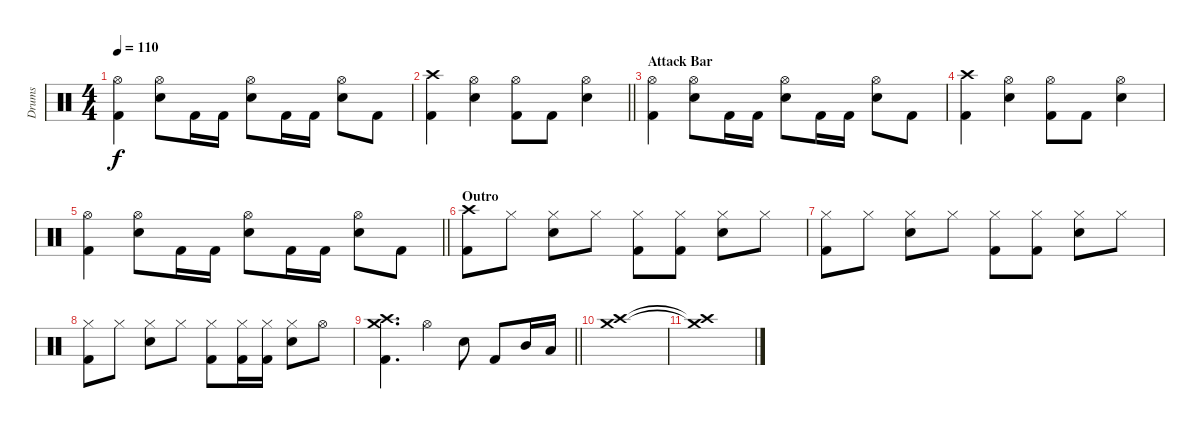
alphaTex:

\track ("Drums" "Drums") {instrument percussion bank 10}
\staff {score}
\articulation defaults
\ts (4 4)
\tempo 110
\clef neutral
\ks c
("Kick (hit) 2" "Hi-Hat (open)").4{dy f} ("Hi-Hat (open)" "Snare (hit) 2").8 "Kick (hit) 2".16 "Kick (hit) 2".16 ("Snare (hit) 2" "Hi-Hat (open)").8 "Kick (hit) 2".16 "Kick (hit) 2".16 ("Snare (hit) 2" "Hi-Hat (open)").8 "Kick (hit) 2".8 |
\barLineRight lightlight
("Kick (hit) 2" "Crash high (hit)").4 ("Hi-Hat (open)" "Snare (hit) 2").4 ("Hi-Hat (open)" "Kick (hit) 2").8 "Kick (hit) 2".8 ("Hi-Hat (open)" "Snare (hit) 2").4 |
\section ("" "Attack Bar")
("Kick (hit) 2" "Hi-Hat (open)").4 ("Hi-Hat (open)" "Snare (hit) 2").8 "Kick (hit) 2".16 "Kick (hit) 2".16 ("Snare (hit) 2" "Hi-Hat (open)").8 "Kick (hit) 2".16 "Kick (hit) 2".16 ("Snare (hit) 2" "Hi-Hat (open)").8 "Kick (hit) 2".8 |
("Kick (hit) 2" "Crash high (hit)").4 ("Hi-Hat (open)" "Snare (hit) 2").4 ("Hi-Hat (open)" "Kick (hit) 2").8 "Kick (hit) 2".8 ("Hi-Hat (open)" "Snare (hit) 2").4 |
\barLineRight lightlight
("Kick (hit) 2" "Hi-Hat (open)").4 ("Hi-Hat (open)" "Snare (hit) 2").8 "Kick (hit) 2".16 "Kick (hit) 2".16 ("Snare (hit) 2" "Hi-Hat (open)").8 "Kick (hit) 2".16 "Kick (hit) 2".16 ("Snare (hit) 2" "Hi-Hat (open)").8 "Kick (hit) 2".8 |
\section ("" "Outro")
("Kick (hit) 2" "Crash high (hit)").8 "Hi-Hat (closed)".8 ("Hi-Hat (closed)" "Snare (hit) 2").8 "Hi-Hat (closed)".8 ("Hi-Hat (closed)" "Kick (hit) 2").8 ("Hi-Hat (closed)" "Kick (hit) 2").8 ("Hi-Hat (closed)" "Snare (hit) 2").8 "Hi-Hat (closed)".8 |
("Kick (hit) 2" "Hi-Hat (closed)").8 "Hi-Hat (closed)".8 ("Hi-Hat (closed)" "Snare (hit) 2").8 "Hi-Hat (closed)".8 ("Hi-Hat (closed)" "Kick (hit) 2").8 ("Hi-Hat (closed)" "Kick (hit) 2").8 ("Hi-Hat (closed)" "Snare (hit) 2").8 "Hi-Hat (closed)".8 |
("Kick (hit) 2" "Hi-Hat (closed)").8 "Hi-Hat (closed)".8 ("Hi-Hat (closed)" "Snare (hit) 2").8 "Hi-Hat (closed)".8 ("Hi-Hat (closed)" "Kick (hit) 2").8 ("Hi-Hat (closed)" "Kick (hit) 2").16 ("Hi-Hat (closed)" "Kick (hit) 2").16 ("Hi-Hat (closed)" "Snare (hit) 2").8 "Hi-Hat (open)".8 |
\barLineRight lightlight
("Kick (hit) 2" "Crash high (hit)" "Crash medium (hit)").4{d} "Hi-Hat (open)".4 "Snare (hit) 2".8 "Kick (hit) 2".8 "Mid Tom (hit)".16 "Low Tom (hit)".16 |
("Crash high (hit)" "Crash medium (hit)").1 |
("Crash high (hit)"{t} "Crash medium (hit)"{t}).1
